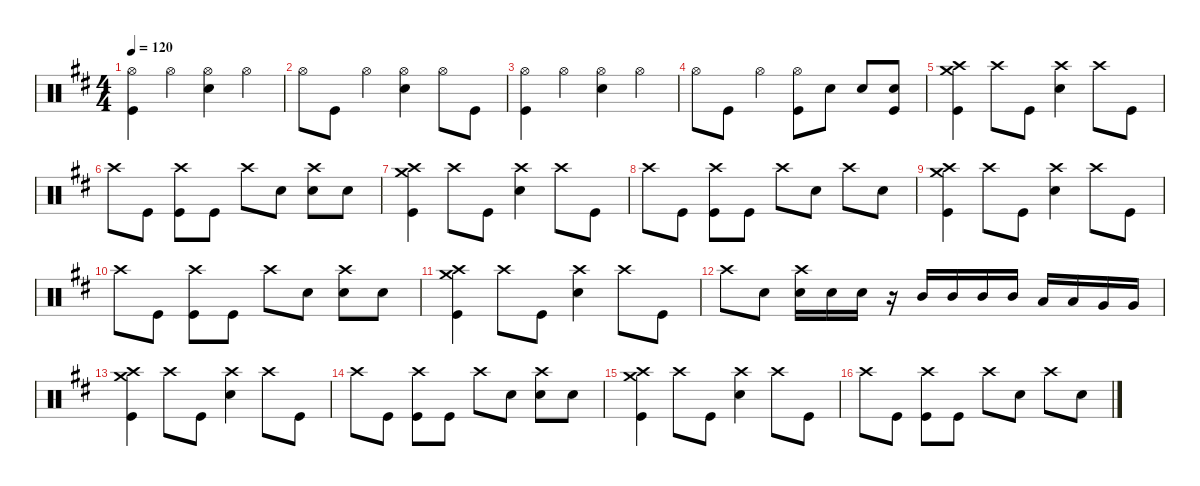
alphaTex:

\defaultSystemsLayout 4
\hideDynamics
\bracketExtendMode nobrackets
\singleTrackTrackNamePolicy hidden
\multiTrackTrackNamePolicy hidden
\firstSystemTrackNameMode fullname
\firstSystemTrackNameOrientation horizontal
\otherSystemsTrackNameOrientation horizontal
\track ("Aaron Harris" "drm.") {defaultSystemsLayout 4 instrument percussion}
\staff {score}
\articulation defaults
\ts (4 4)
\tempo 120
\clef neutral
\ks bminor
("Hi-Hat (open)"{acc forcenatural} "Kick (hit)"{acc forcenatural}).4{dy f beam Down} "Hi-Hat (open)"{acc forcenatural}.4{beam Down} ("Hi-Hat (open)"{acc forcenatural} "Snare (hit) 2"{acc forcenatural}).4{beam Down} "Hi-Hat (open)"{acc forcenatural}.4{beam Down} |
"Hi-Hat (open)"{acc forcenatural}.8{beam Down} "Kick (hit)"{acc forcenatural}.8{beam Down} "Hi-Hat (open)"{acc forcenatural}.4{beam Down} ("Hi-Hat (open)"{acc forcenatural} "Snare (hit) 2"{acc forcenatural}).4{beam Down} "Hi-Hat (open)"{acc forcenatural}.8{beam Down} "Kick (hit)"{acc forcenatural}.8{beam Down} |
("Hi-Hat (open)"{acc forcenatural} "Kick (hit)"{acc forcenatural}).4{beam Down} "Hi-Hat (open)"{acc forcenatural}.4{beam Down} ("Hi-Hat (open)"{acc forcenatural} "Snare (hit) 2"{acc forcenatural}).4{beam Down} "Hi-Hat (open)"{acc forcenatural}.4{beam Down} |
"Hi-Hat (open)"{acc forcenatural}.8{beam Down} "Kick (hit)"{acc forcenatural}.8{beam Down} "Hi-Hat (open)"{acc forcenatural}.4{beam Down} ("Hi-Hat (open)"{acc forcenatural} "Kick (hit)"{acc forcenatural}).8{beam Down} "Snare (hit) 2"{acc forcenatural}.8{beam Down} "Snare (hit) 2"{acc forcenatural}.8{beam Up} ("Snare (hit) 2"{acc forcenatural} "Kick (hit)"{acc forcenatural}).8{beam Up} |
("Crash high (hit)"{acc forcenatural} "Crash medium (hit)"{acc forcenatural} "Kick (hit)"{acc forcenatural}).4{beam Down} "Crash high (hit)"{acc forcenatural}.8{beam Down} "Kick (hit)"{acc forcenatural}.8{beam Down} ("Crash high (hit)"{acc forcenatural} "Snare (hit) 2"{acc forcenatural}).4{beam Down} "Crash high (hit)"{acc forcenatural}.8{beam Down} "Kick (hit)"{acc forcenatural}.8{beam Down} |
"Crash high (hit)"{acc forcenatural}.8{beam Down} "Kick (hit)"{acc forcenatural}.8{beam Down} ("Crash high (hit)"{acc forcenatural} "Kick (hit)"{acc forcenatural}).8{beam Down} "Kick (hit)"{acc forcenatural}.8{beam Down} "Crash high (hit)"{acc forcenatural}.8{beam Down} "Snare (hit) 2"{acc forcenatural}.8{beam Down} ("Crash high (hit)"{acc forcenatural} "Snare (hit) 2"{acc forcenatural}).8{beam Down} "Snare (hit) 2"{acc forcenatural}.8{beam Down} |
("Crash high (hit)"{acc forcenatural} "Crash medium (hit)"{acc forcenatural} "Kick (hit)"{acc forcenatural}).4{beam Down} "Crash high (hit)"{acc forcenatural}.8{beam Down} "Kick (hit)"{acc forcenatural}.8{beam Down} ("Crash high (hit)"{acc forcenatural} "Snare (hit) 2"{acc forcenatural}).4{beam Down} "Crash high (hit)"{acc forcenatural}.8{beam Down} "Kick (hit)"{acc forcenatural}.8{beam Down} |
"Crash high (hit)"{acc forcenatural}.8{beam Down} "Kick (hit)"{acc forcenatural}.8{beam Down} ("Crash high (hit)"{acc forcenatural} "Kick (hit)"{acc forcenatural}).8{beam Down} "Kick (hit)"{acc forcenatural}.8{beam Down} "Crash high (hit)"{acc forcenatural}.8{beam Down} "Snare (hit) 2"{acc forcenatural}.8{beam Down} "Crash high (hit)"{acc forcenatural}.8{beam Down} "Snare (hit) 2"{acc forcenatural}.8{beam Down} |
("Crash high (hit)"{acc forcenatural} "Crash medium (hit)"{acc forcenatural} "Kick (hit)"{acc forcenatural}).4{beam Down} "Crash high (hit)"{acc forcenatural}.8{beam Down} "Kick (hit)"{acc forcenatural}.8{beam Down} ("Crash high (hit)"{acc forcenatural} "Snare (hit) 2"{acc forcenatural}).4{beam Down} "Crash high (hit)"{acc forcenatural}.8{beam Down} "Kick (hit)"{acc forcenatural}.8{beam Down} |
"Crash high (hit)"{acc forcenatural}.8{beam Down} "Kick (hit)"{acc forcenatural}.8{beam Down} ("Crash high (hit)"{acc forcenatural} "Kick (hit)"{acc forcenatural}).8{beam Down} "Kick (hit)"{acc forcenatural}.8{beam Down} "Crash high (hit)"{acc forcenatural}.8{beam Down} "Snare (hit) 2"{acc forcenatural}.8{beam Down} ("Crash high (hit)"{acc forcenatural} "Snare (hit) 2"{acc forcenatural}).8{beam Down} "Snare (hit) 2"{acc forcenatural}.8{beam Down} |
("Crash high (hit)"{acc forcenatural} "Crash medium (hit)"{acc forcenatural} "Kick (hit)"{acc forcenatural}).4{beam Down} "Crash high (hit)"{acc forcenatural}.8{beam Down} "Kick (hit)"{acc forcenatural}.8{beam Down} ("Crash high (hit)"{acc forcenatural} "Snare (hit) 2"{acc forcenatural}).4{beam Down} "Crash high (hit)"{acc forcenatural}.8{beam Down} "Kick (hit)"{acc forcenatural}.8{beam Down} |
"Crash high (hit)"{acc forcenatural}.8{beam Down} "Snare (hit) 2"{acc forcenatural}.8{beam Down} ("Crash high (hit)"{acc forcenatural} "Snare (hit) 2"{acc forcenatural}).16{beam Down} "Snare (hit) 2"{acc forcenatural}.16{beam Down} "Snare (hit) 2"{acc forcenatural}.16{beam Down} r.16{beam Down} "Mid Tom (hit)"{acc forcenatural}.16{beam Up} "Mid Tom (hit)"{acc forcenatural}.16{beam Up} "Mid Tom (hit)"{acc forcenatural}.16{beam Up} "Mid Tom (hit)"{acc forcenatural}.16{beam Up} "Low Tom (hit)"{acc forcenatural}.16{beam Up} "Low Tom (hit)"{acc forcenatural}.16{beam Up} "Very Low Tom (hit)"{acc forcenatural}.16{beam Up} "Very Low Tom (hit)"{acc forcenatural}.16{beam Up} |
("Crash high (hit)"{acc forcenatural} "Crash medium (hit)"{acc forcenatural} "Kick (hit)"{acc forcenatural}).4{beam Down} "Crash high (hit)"{acc forcenatural}.8{beam Down} "Kick (hit)"{acc forcenatural}.8{beam Down} ("Crash high (hit)"{acc forcenatural} "Snare (hit) 2"{acc forcenatural}).4{beam Down} "Crash high (hit)"{acc forcenatural}.8{beam Down} "Kick (hit)"{acc forcenatural}.8{beam Down} |
"Crash high (hit)"{acc forcenatural}.8{beam Down} "Kick (hit)"{acc forcenatural}.8{beam Down} ("Crash high (hit)"{acc forcenatural} "Kick (hit)"{acc forcenatural}).8{beam Down} "Kick (hit)"{acc forcenatural}.8{beam Down} "Crash high (hit)"{acc forcenatural}.8{beam Down} "Snare (hit) 2"{acc forcenatural}.8{beam Down} ("Crash high (hit)"{acc forcenatural} "Snare (hit) 2"{acc forcenatural}).8{beam Down} "Snare (hit) 2"{acc forcenatural}.8{beam Down} |
("Crash high (hit)"{acc forcenatural} "Crash medium (hit)"{acc forcenatural} "Kick (hit)"{acc forcenatural}).4{beam Down} "Crash high (hit)"{acc forcenatural}.8{beam Down} "Kick (hit)"{acc forcenatural}.8{beam Down} ("Crash high (hit)"{acc forcenatural} "Snare (hit) 2"{acc forcenatural}).4{beam Down} "Crash high (hit)"{acc forcenatural}.8{beam Down} "Kick (hit)"{acc forcenatural}.8{beam Down} |
"Crash high (hit)"{acc forcenatural}.8{beam Down} "Kick (hit)"{acc forcenatural}.8{beam Down} ("Crash high (hit)"{acc forcenatural} "Kick (hit)"{acc forcenatural}).8{beam Down} "Kick (hit)"{acc forcenatural}.8{beam Down} "Crash high (hit)"{acc forcenatural}.8{beam Down} "Snare (hit) 2"{acc forcenatural}.8{beam Down} "Crash high (hit)"{acc forcenatural}.8{beam Down} "Snare (hit) 2"{acc forcenatural}.8{beam Down}
